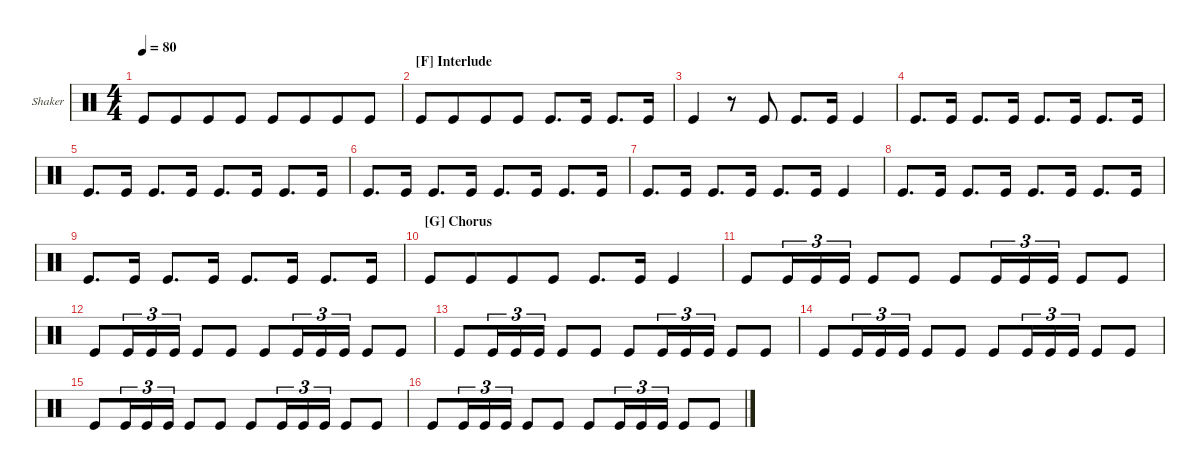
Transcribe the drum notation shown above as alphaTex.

\defaultSystemsLayout 4
\hideDynamics
\bracketExtendMode groupsimilarinstruments
\firstSystemTrackNameOrientation horizontal
\otherSystemsTrackNameOrientation horizontal
\track ("Shaker" "Shaker") {multiBarRest instrument percussion}
\staff {score}
\articulation defaults
\ts (4 4)
\tempo 80
\clef neutral
\ks c "Kick (hit)".8{dy p} "Kick (hit)".8{beam merge} "Kick (hit)".8 "Kick (hit)".8 "Kick (hit)".8 "Kick (hit)".8{beam merge} "Kick (hit)".8 "Kick (hit)".8
|
\section ("F" "Interlude")
"Kick (hit)".8 "Kick (hit)".8{beam merge} "Kick (hit)".8 "Kick (hit)".8 "Kick (hit)".8{d} "Kick (hit)".16 "Kick (hit)".8{d} "Kick (hit)".16 |
"Kick (hit)".4 r.8 "Kick (hit)".8 "Kick (hit)".8{d} "Kick (hit)".16 "Kick (hit)".4 |
"Kick (hit)".8{d} "Kick (hit)".16 "Kick (hit)".8{d} "Kick (hit)".16 "Kick (hit)".8{d} "Kick (hit)".16 "Kick (hit)".8{d} "Kick (hit)".16 |
"Kick (hit)".8{d} "Kick (hit)".16 "Kick (hit)".8{d} "Kick (hit)".16 "Kick (hit)".8{d} "Kick (hit)".16 "Kick (hit)".8{d} "Kick (hit)".16 |
"Kick (hit)".8{d} "Kick (hit)".16 "Kick (hit)".8{d} "Kick (hit)".16 "Kick (hit)".8{d} "Kick (hit)".16 "Kick (hit)".8{d} "Kick (hit)".16 |
"Kick (hit)".8{d} "Kick (hit)".16 "Kick (hit)".8{d} "Kick (hit)".16 "Kick (hit)".8{d} "Kick (hit)".16 "Kick (hit)".4 |
"Kick (hit)".8{d} "Kick (hit)".16 "Kick (hit)".8{d} "Kick (hit)".16 "Kick (hit)".8{d} "Kick (hit)".16 "Kick (hit)".8{d} "Kick (hit)".16 |
"Kick (hit)".8{d} "Kick (hit)".16 "Kick (hit)".8{d} "Kick (hit)".16 "Kick (hit)".8{d} "Kick (hit)".16 "Kick (hit)".8{d} "Kick (hit)".16 |
\section ("G" "Chorus")
"Kick (hit)".8 "Kick (hit)".8{beam merge} "Kick (hit)".8 "Kick (hit)".8 "Kick (hit)".8{d} "Kick (hit)".16 "Kick (hit)".4 |
"Kick (hit)".8{beam merge} "Kick (hit)".16{tu (3 2)} "Kick (hit)".16{tu (3 2)} "Kick (hit)".16{tu (3 2)} "Kick (hit)".8 "Kick (hit)".8 "Kick (hit)".8{beam merge} "Kick (hit)".16{tu (3 2)} "Kick (hit)".16{tu (3 2)} "Kick (hit)".16{tu (3 2)} "Kick (hit)".8 "Kick (hit)".8 |
"Kick (hit)".8{beam merge} "Kick (hit)".16{tu (3 2)} "Kick (hit)".16{tu (3 2)} "Kick (hit)".16{tu (3 2)} "Kick (hit)".8 "Kick (hit)".8 "Kick (hit)".8{beam merge} "Kick (hit)".16{tu (3 2)} "Kick (hit)".16{tu (3 2)} "Kick (hit)".16{tu (3 2)} "Kick (hit)".8 "Kick (hit)".8 |
"Kick (hit)".8{beam merge} "Kick (hit)".16{tu (3 2)} "Kick (hit)".16{tu (3 2)} "Kick (hit)".16{tu (3 2)} "Kick (hit)".8 "Kick (hit)".8 "Kick (hit)".8{beam merge} "Kick (hit)".16{tu (3 2)} "Kick (hit)".16{tu (3 2)} "Kick (hit)".16{tu (3 2)} "Kick (hit)".8 "Kick (hit)".8 |
"Kick (hit)".8{beam merge} "Kick (hit)".16{tu (3 2)} "Kick (hit)".16{tu (3 2)} "Kick (hit)".16{tu (3 2)} "Kick (hit)".8 "Kick (hit)".8 "Kick (hit)".8{beam merge} "Kick (hit)".16{tu (3 2)} "Kick (hit)".16{tu (3 2)} "Kick (hit)".16{tu (3 2)} "Kick (hit)".8 "Kick (hit)".8 |
"Kick (hit)".8{beam merge} "Kick (hit)".16{tu (3 2)} "Kick (hit)".16{tu (3 2)} "Kick (hit)".16{tu (3 2)} "Kick (hit)".8 "Kick (hit)".8 "Kick (hit)".8{beam merge} "Kick (hit)".16{tu (3 2)} "Kick (hit)".16{tu (3 2)} "Kick (hit)".16{tu (3 2)} "Kick (hit)".8 "Kick (hit)".8 |
"Kick (hit)".8{beam merge} "Kick (hit)".16{tu (3 2)} "Kick (hit)".16{tu (3 2)} "Kick (hit)".16{tu (3 2)} "Kick (hit)".8 "Kick (hit)".8 "Kick (hit)".8{beam merge} "Kick (hit)".16{tu (3 2)} "Kick (hit)".16{tu (3 2)} "Kick (hit)".16{tu (3 2)} "Kick (hit)".8 "Kick (hit)".8
